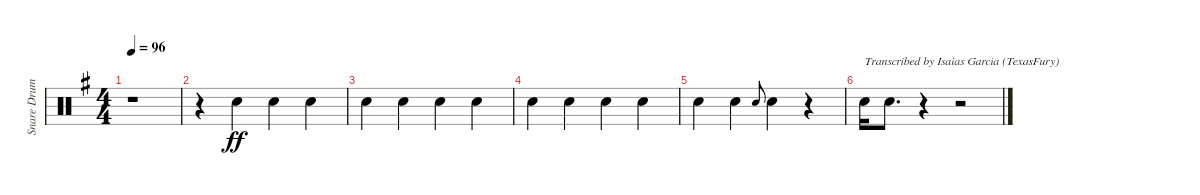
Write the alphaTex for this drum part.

\track ("Snare Drum" "Snare Drum") {instrument percussion}
\staff {score}
\articulation defaults
\ts (4 4)
\tempo 96
\clef neutral
\ks g
r.1{dy ff} |
r.4{beam merge} "Electric Snare (hit)".4 "Electric Snare (hit)".4{beam merge} "Electric Snare (hit)".4 |
"Electric Snare (hit)".4{beam merge} "Electric Snare (hit)".4 "Electric Snare (hit)".4{beam merge} "Electric Snare (hit)".4 |
"Electric Snare (hit)".4{beam merge} "Electric Snare (hit)".4 "Electric Snare (hit)".4{beam merge} "Electric Snare (hit)".4 |
"Electric Snare (hit)".4{beam merge} "Electric Snare (hit)".4 "Electric Snare (hit)".8{gr onbeat} "Electric Snare (hit)".4 r.4 |
"Electric Snare (hit)".16{txt "Transcribed by Isaias Garcia (TexasFury)"} "Electric Snare (hit)".8{d} r.4 r.2
